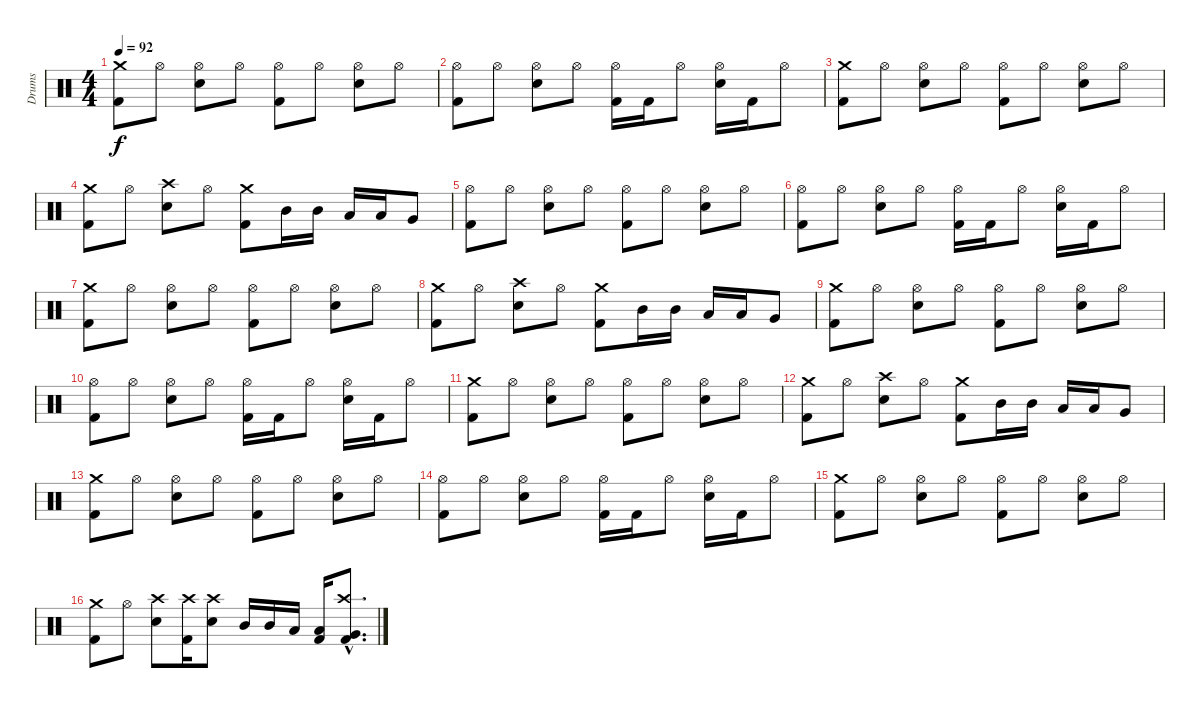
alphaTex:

\track ("Drums" "Drums") {instrument percussion}
\staff {score}
\articulation defaults
\ts (4 4)
\tempo 92
\clef neutral
\ks c
("Crash medium (hit)" "Kick (hit) 2").8{dy f} "Hi-Hat (open)".8 ("Hi-Hat (open)" "Electric Snare (hit)").8 "Hi-Hat (open)".8 ("Hi-Hat (open)" "Kick (hit) 2").8 "Hi-Hat (open)".8 ("Hi-Hat (open)" "Electric Snare (hit)").8 "Hi-Hat (open)".8 |
("Hi-Hat (open)" "Kick (hit) 2").8 "Hi-Hat (open)".8 ("Hi-Hat (open)" "Electric Snare (hit)").8 "Hi-Hat (open)".8 ("Hi-Hat (open)" "Kick (hit) 2").16 "Kick (hit) 2".16 "Hi-Hat (open)".8 ("Hi-Hat (open)" "Electric Snare (hit)").16 "Kick (hit) 2".16 "Hi-Hat (open)".8 |
("Crash medium (hit)" "Kick (hit) 2").8 "Hi-Hat (open)".8 ("Hi-Hat (open)" "Electric Snare (hit)").8 "Hi-Hat (open)".8 ("Hi-Hat (open)" "Kick (hit) 2").8 "Hi-Hat (open)".8 ("Hi-Hat (open)" "Electric Snare (hit)").8 "Hi-Hat (open)".8 |
("Crash medium (hit)" "Kick (hit) 2").8 "Hi-Hat (open)".8 ("Crash high (hit)" "Electric Snare (hit)").8 "Hi-Hat (open)".8 ("Crash medium (hit)" "Kick (hit) 2").8 "Mid Tom (hit)".16 "Mid Tom (hit)".16 "Low Tom (hit)".16 "Low Tom (hit)".16 "Very Low Tom (hit)".8 |
("Hi-Hat (open)" "Kick (hit) 2").8 "Hi-Hat (open)".8 ("Hi-Hat (open)" "Electric Snare (hit)").8 "Hi-Hat (open)".8 ("Hi-Hat (open)" "Kick (hit) 2").8 "Hi-Hat (open)".8 ("Hi-Hat (open)" "Electric Snare (hit)").8 "Hi-Hat (open)".8 |
("Hi-Hat (open)" "Kick (hit) 2").8 "Hi-Hat (open)".8 ("Hi-Hat (open)" "Electric Snare (hit)").8 "Hi-Hat (open)".8 ("Hi-Hat (open)" "Kick (hit) 2").16 "Kick (hit) 2".16 "Hi-Hat (open)".8 ("Hi-Hat (open)" "Electric Snare (hit)").16 "Kick (hit) 2".16 "Hi-Hat (open)".8 |
("Crash medium (hit)" "Kick (hit) 2").8 "Hi-Hat (open)".8 ("Hi-Hat (open)" "Electric Snare (hit)").8 "Hi-Hat (open)".8 ("Hi-Hat (open)" "Kick (hit) 2").8 "Hi-Hat (open)".8 ("Hi-Hat (open)" "Electric Snare (hit)").8 "Hi-Hat (open)".8 |
("Crash medium (hit)" "Kick (hit) 2").8 "Hi-Hat (open)".8 ("Crash high (hit)" "Electric Snare (hit)").8 "Hi-Hat (open)".8 ("Crash medium (hit)" "Kick (hit) 2").8 "Mid Tom (hit)".16 "Mid Tom (hit)".16 "Low Tom (hit)".16 "Low Tom (hit)".16 "Very Low Tom (hit)".8 |
("Crash medium (hit)" "Kick (hit) 2").8 "Hi-Hat (open)".8 ("Hi-Hat (open)" "Electric Snare (hit)").8 "Hi-Hat (open)".8 ("Hi-Hat (open)" "Kick (hit) 2").8 "Hi-Hat (open)".8 ("Hi-Hat (open)" "Electric Snare (hit)").8 "Hi-Hat (open)".8 |
("Hi-Hat (open)" "Kick (hit) 2").8 "Hi-Hat (open)".8 ("Hi-Hat (open)" "Electric Snare (hit)").8 "Hi-Hat (open)".8 ("Hi-Hat (open)" "Kick (hit) 2").16 "Kick (hit) 2".16 "Hi-Hat (open)".8 ("Hi-Hat (open)" "Electric Snare (hit)").16 "Kick (hit) 2".16 "Hi-Hat (open)".8 |
("Crash medium (hit)" "Kick (hit) 2").8 "Hi-Hat (open)".8 ("Hi-Hat (open)" "Electric Snare (hit)").8 "Hi-Hat (open)".8 ("Hi-Hat (open)" "Kick (hit) 2").8 "Hi-Hat (open)".8 ("Hi-Hat (open)" "Electric Snare (hit)").8 "Hi-Hat (open)".8 |
("Crash medium (hit)" "Kick (hit) 2").8 "Hi-Hat (open)".8 ("Crash high (hit)" "Electric Snare (hit)").8 "Hi-Hat (open)".8 ("Crash medium (hit)" "Kick (hit) 2").8 "Mid Tom (hit)".16 "Mid Tom (hit)".16 "Low Tom (hit)".16 "Low Tom (hit)".16 "Very Low Tom (hit)".8 |
("Crash medium (hit)" "Kick (hit) 2").8 "Hi-Hat (open)".8 ("Hi-Hat (open)" "Electric Snare (hit)").8 "Hi-Hat (open)".8 ("Hi-Hat (open)" "Kick (hit) 2").8 "Hi-Hat (open)".8 ("Hi-Hat (open)" "Electric Snare (hit)").8 "Hi-Hat (open)".8 |
("Hi-Hat (open)" "Kick (hit) 2").8 "Hi-Hat (open)".8 ("Hi-Hat (open)" "Electric Snare (hit)").8 "Hi-Hat (open)".8 ("Hi-Hat (open)" "Kick (hit) 2").16 "Kick (hit) 2".16 "Hi-Hat (open)".8 ("Hi-Hat (open)" "Electric Snare (hit)").16 "Kick (hit) 2".16 "Hi-Hat (open)".8 |
("Crash medium (hit)" "Kick (hit) 2").8 "Hi-Hat (open)".8 ("Hi-Hat (open)" "Electric Snare (hit)").8 "Hi-Hat (open)".8 ("Hi-Hat (open)" "Kick (hit) 2").8 "Hi-Hat (open)".8 ("Hi-Hat (open)" "Electric Snare (hit)").8 "Hi-Hat (open)".8 |
("Crash medium (hit)" "Kick (hit) 2").8 "Hi-Hat (open)".8 ("Crash high (hit)" "Electric Snare (hit)").8 ("Crash high (hit)" "Kick (hit) 2").16 ("Crash high (hit)" "Electric Snare (hit)").8 "Mid Tom (hit)".16 "Mid Tom (hit)".16 "Low Tom (hit)".16 ("Low Tom (hit)" "Kick (hit) 2").16 ("Crash high (hit)"{hac} "Very Low Tom (hit)"{hac} "Kick (hit) 2"{hac}).8{d}
